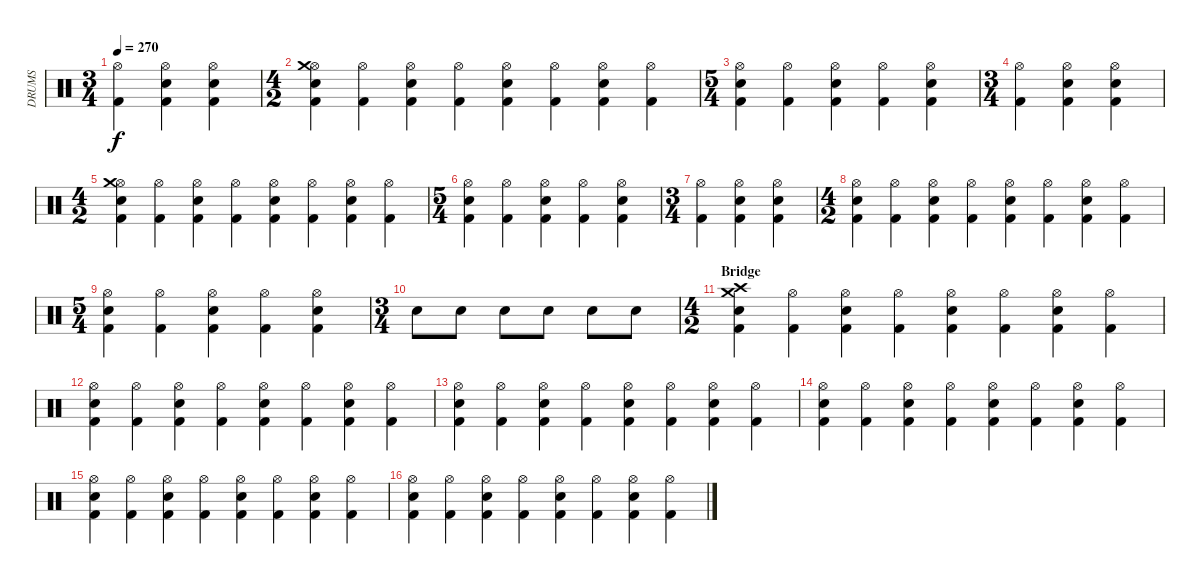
\track ("DRUMS" "DRUMS") {instrument percussion}
\staff {score}
\articulation defaults
\ts (3 4)
\tempo 270
\clef neutral
\ks c
("Hi-Hat (open)" "Kick (hit) 2").4{dy f} ("Hi-Hat (open)" "Snare (hit) 2" "Kick (hit) 2").4 ("Hi-Hat (open)" "Snare (hit) 2" "Kick (hit) 2").4 |
\ts (4 2)
("Hi-Hat (open)" "Snare (hit) 2" "Crash medium (hit)" "Kick (hit) 2").4 ("Hi-Hat (open)" "Kick (hit) 2").4 ("Hi-Hat (open)" "Snare (hit) 2" "Kick (hit) 2").4 ("Hi-Hat (open)" "Kick (hit) 2").4 ("Hi-Hat (open)" "Snare (hit) 2" "Kick (hit) 2").4 ("Hi-Hat (open)" "Kick (hit) 2").4 ("Hi-Hat (open)" "Snare (hit) 2" "Kick (hit) 2").4 ("Hi-Hat (open)" "Kick (hit) 2").4 |
\ts (5 4)
("Hi-Hat (open)" "Snare (hit) 2" "Kick (hit) 2").4 ("Hi-Hat (open)" "Kick (hit) 2").4 ("Hi-Hat (open)" "Snare (hit) 2" "Kick (hit) 2").4 ("Hi-Hat (open)" "Kick (hit) 2").4 ("Hi-Hat (open)" "Snare (hit) 2" "Kick (hit) 2").4 |
\ts (3 4)
("Hi-Hat (open)" "Kick (hit) 2").4 ("Hi-Hat (open)" "Snare (hit) 2" "Kick (hit) 2").4 ("Hi-Hat (open)" "Snare (hit) 2" "Kick (hit) 2").4 |
\ts (4 2)
("Hi-Hat (open)" "Snare (hit) 2" "Crash medium (hit)" "Kick (hit) 2").4 ("Hi-Hat (open)" "Kick (hit) 2").4 ("Hi-Hat (open)" "Snare (hit) 2" "Kick (hit) 2").4 ("Hi-Hat (open)" "Kick (hit) 2").4 ("Hi-Hat (open)" "Snare (hit) 2" "Kick (hit) 2").4 ("Hi-Hat (open)" "Kick (hit) 2").4 ("Hi-Hat (open)" "Snare (hit) 2" "Kick (hit) 2").4 ("Hi-Hat (open)" "Kick (hit) 2").4 |
\ts (5 4)
("Hi-Hat (open)" "Snare (hit) 2" "Kick (hit) 2").4 ("Hi-Hat (open)" "Kick (hit) 2").4 ("Hi-Hat (open)" "Snare (hit) 2" "Kick (hit) 2").4 ("Hi-Hat (open)" "Kick (hit) 2").4 ("Hi-Hat (open)" "Snare (hit) 2" "Kick (hit) 2").4 |
\ts (3 4)
("Hi-Hat (open)" "Kick (hit) 2").4 ("Hi-Hat (open)" "Snare (hit) 2" "Kick (hit) 2").4 ("Hi-Hat (open)" "Snare (hit) 2" "Kick (hit) 2").4 |
\ts (4 2)
("Hi-Hat (open)" "Snare (hit) 2" "Kick (hit) 2").4 ("Hi-Hat (open)" "Kick (hit) 2").4 ("Hi-Hat (open)" "Snare (hit) 2" "Kick (hit) 2").4 ("Hi-Hat (open)" "Kick (hit) 2").4 ("Hi-Hat (open)" "Snare (hit) 2" "Kick (hit) 2").4 ("Hi-Hat (open)" "Kick (hit) 2").4 ("Hi-Hat (open)" "Snare (hit) 2" "Kick (hit) 2").4 ("Hi-Hat (open)" "Kick (hit) 2").4 |
\ts (5 4)
("Hi-Hat (open)" "Snare (hit) 2" "Kick (hit) 2").4 ("Hi-Hat (open)" "Kick (hit) 2").4 ("Hi-Hat (open)" "Snare (hit) 2" "Kick (hit) 2").4 ("Hi-Hat (open)" "Kick (hit) 2").4 ("Hi-Hat (open)" "Snare (hit) 2" "Kick (hit) 2").4 |
\ts (3 4)
"Snare (hit) 2".8 "Snare (hit) 2".8 "Snare (hit) 2".8 "Snare (hit) 2".8 "Snare (hit) 2".8 "Snare (hit) 2".8 |
\ts (4 2)
\section ("" "Bridge")
("Crash medium (hit)" "Crash high (hit)" "Snare (hit) 2" "Kick (hit) 2").4 ("Hi-Hat (open)" "Kick (hit) 2").4 ("Hi-Hat (open)" "Snare (hit) 2" "Kick (hit) 2").4 ("Hi-Hat (open)" "Kick (hit) 2").4 ("Hi-Hat (open)" "Snare (hit) 2" "Kick (hit) 2").4 ("Hi-Hat (open)" "Kick (hit) 2").4 ("Hi-Hat (open)" "Snare (hit) 2" "Kick (hit) 2").4 ("Hi-Hat (open)" "Kick (hit) 2").4 |
("Hi-Hat (open)" "Snare (hit) 2" "Kick (hit) 2").4 ("Hi-Hat (open)" "Kick (hit) 2").4 ("Hi-Hat (open)" "Snare (hit) 2" "Kick (hit) 2").4 ("Hi-Hat (open)" "Kick (hit) 2").4 ("Hi-Hat (open)" "Snare (hit) 2" "Kick (hit) 2").4 ("Hi-Hat (open)" "Kick (hit) 2").4 ("Hi-Hat (open)" "Snare (hit) 2" "Kick (hit) 2").4 ("Hi-Hat (open)" "Kick (hit) 2").4 |
("Hi-Hat (open)" "Snare (hit) 2" "Kick (hit) 2").4 ("Hi-Hat (open)" "Kick (hit) 2").4 ("Hi-Hat (open)" "Snare (hit) 2" "Kick (hit) 2").4 ("Hi-Hat (open)" "Kick (hit) 2").4 ("Hi-Hat (open)" "Snare (hit) 2" "Kick (hit) 2").4 ("Hi-Hat (open)" "Kick (hit) 2").4 ("Hi-Hat (open)" "Snare (hit) 2" "Kick (hit) 2").4 ("Hi-Hat (open)" "Kick (hit) 2").4 |
("Hi-Hat (open)" "Snare (hit) 2" "Kick (hit) 2").4 ("Hi-Hat (open)" "Kick (hit) 2").4 ("Hi-Hat (open)" "Snare (hit) 2" "Kick (hit) 2").4 ("Hi-Hat (open)" "Kick (hit) 2").4 ("Hi-Hat (open)" "Snare (hit) 2" "Kick (hit) 2").4 ("Hi-Hat (open)" "Kick (hit) 2").4 ("Hi-Hat (open)" "Snare (hit) 2" "Kick (hit) 2").4 ("Hi-Hat (open)" "Kick (hit) 2").4 |
("Hi-Hat (open)" "Snare (hit) 2" "Kick (hit) 2").4 ("Hi-Hat (open)" "Kick (hit) 2").4 ("Hi-Hat (open)" "Snare (hit) 2" "Kick (hit) 2").4 ("Hi-Hat (open)" "Kick (hit) 2").4 ("Hi-Hat (open)" "Snare (hit) 2" "Kick (hit) 2").4 ("Hi-Hat (open)" "Kick (hit) 2").4 ("Hi-Hat (open)" "Snare (hit) 2" "Kick (hit) 2").4 ("Hi-Hat (open)" "Kick (hit) 2").4 |
("Hi-Hat (open)" "Snare (hit) 2" "Kick (hit) 2").4 ("Hi-Hat (open)" "Kick (hit) 2").4 ("Hi-Hat (open)" "Snare (hit) 2" "Kick (hit) 2").4 ("Hi-Hat (open)" "Kick (hit) 2").4 ("Hi-Hat (open)" "Snare (hit) 2" "Kick (hit) 2").4 ("Hi-Hat (open)" "Kick (hit) 2").4 ("Hi-Hat (open)" "Snare (hit) 2" "Kick (hit) 2").4 ("Hi-Hat (open)" "Kick (hit) 2").4
